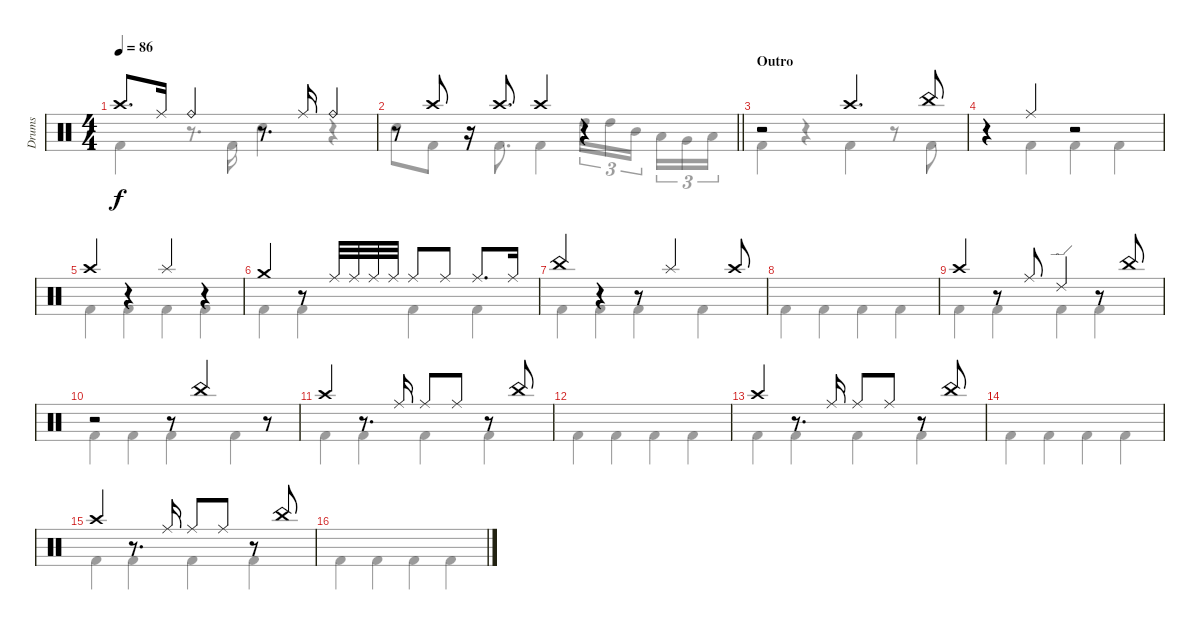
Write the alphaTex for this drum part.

\track ("Drums" "Drums") {instrument percussion}
\staff {score}
\articulation defaults
\voice
\ts (4 4)
\tempo 86
\clef neutral
\ks c "Crash high (hit)".8{d dy f} "Ride (middle)".16 "Ride (bell)".4
r.8{d} "Ride (middle)".16 "Ride (bell)".4 |
\barLineRight lightlight
r.8 "Crash high (hit)".8 r.16 "Crash high (hit)".8{d} "Crash high (hit)".4 r.4 |
\section ("" "Outro")
r.2 "Crash high (hit)".4{d} "China (hit)".8 |
r.4 "Ride (middle)".4 r.2 |
"Crash high (hit)".4 r.4 "Splash (hit)".4 r.4 |
"Crash medium (hit)".4 r.8 "Ride (middle)".32 "Ride (middle)".32 "Ride (middle)".32 "Ride (middle)".32 "Ride (middle)".8 "Ride (middle)".8 "Ride (middle)".8{d} "Ride (middle)".16 |
"China (hit)".4 r.4 r.8 "Splash (hit)".4 "Crash high (hit)".8 |
|
"Crash high (hit)".4 r.8 "Ride (middle)".8 "Ride (edge) 2".4 r.8 "China (hit)".8 |
r.2 r.8 "China (hit)".4 r.8 |
"Crash high (hit)".4 r.8{d} "Ride (middle)".16 "Ride (middle)".8 "Ride (middle)".8 r.8 "China (hit)".8 |
|
"Crash high (hit)".4 r.8{d} "Ride (middle)".16 "Ride (middle)".8 "Ride (middle)".8 r.8 "China (hit)".8 |
|
"Crash high (hit)".4 r.8{d} "Ride (middle)".16 "Ride (middle)".8 "Ride (middle)".8 r.8 "China (hit)".8 |
\voice
\clef neutral
\ottava regular
\simile none
\ks c "Kick (hit) 2".4{dy f}
r.8{d} "Kick (hit) 2".16 "Electric Snare (hit)".4 r.4 |
\barLineRight lightlight "Electric Snare (hit)".8 "Kick (hit) 2".8
r.16 "Kick (hit) 2".8{d} "Kick (hit) 2".4 "High Tom (hit)".16{tu (3 2)} "High Tom (hit)".16{tu (3 2)} "Mid Tom (hit)".16{tu (3 2) beam splitsecondary} "Low Tom (hit)".16{tu (3 2)} "Very Low Tom (hit)".16{tu (3 2)} "Low Floor Tom (hit)".16{tu (3 2)} |
"Kick (hit) 2".4 r.4 "Kick (hit) 2".4 r.8 "Kick (hit) 2".8 |
r.4 "Kick (hit) 2".4 "Kick (hit) 2".4 "Kick (hit) 2".4 |
"Kick (hit) 2".4 "Kick (hit) 2".4 "Kick (hit) 2".4 "Kick (hit) 2".4 |
"Kick (hit) 2".4 "Kick (hit) 2".4 "Kick (hit) 2".4 "Kick (hit) 2".4 |
"Kick (hit) 2".4 "Kick (hit) 2".4 "Kick (hit) 2".4 "Kick (hit) 2".4 |
"Kick (hit) 2".4 "Kick (hit) 2".4 "Kick (hit) 2".4 "Kick (hit) 2".4 |
"Kick (hit) 2".4 "Kick (hit) 2".4 "Kick (hit) 2".4 "Kick (hit) 2".4 |
"Kick (hit) 2".4 "Kick (hit) 2".4 "Kick (hit) 2".4 "Kick (hit) 2".4 |
"Kick (hit) 2".4 "Kick (hit) 2".4 "Kick (hit) 2".4 "Kick (hit) 2".4 |
"Kick (hit) 2".4 "Kick (hit) 2".4 "Kick (hit) 2".4 "Kick (hit) 2".4 |
"Kick (hit) 2".4 "Kick (hit) 2".4 "Kick (hit) 2".4 "Kick (hit) 2".4 |
"Kick (hit) 2".4 "Kick (hit) 2".4 "Kick (hit) 2".4 "Kick (hit) 2".4 |
"Kick (hit) 2".4 "Kick (hit) 2".4 "Kick (hit) 2".4 "Kick (hit) 2".4 |
"Kick (hit) 2".4 "Kick (hit) 2".4 "Kick (hit) 2".4 "Kick (hit) 2".4
